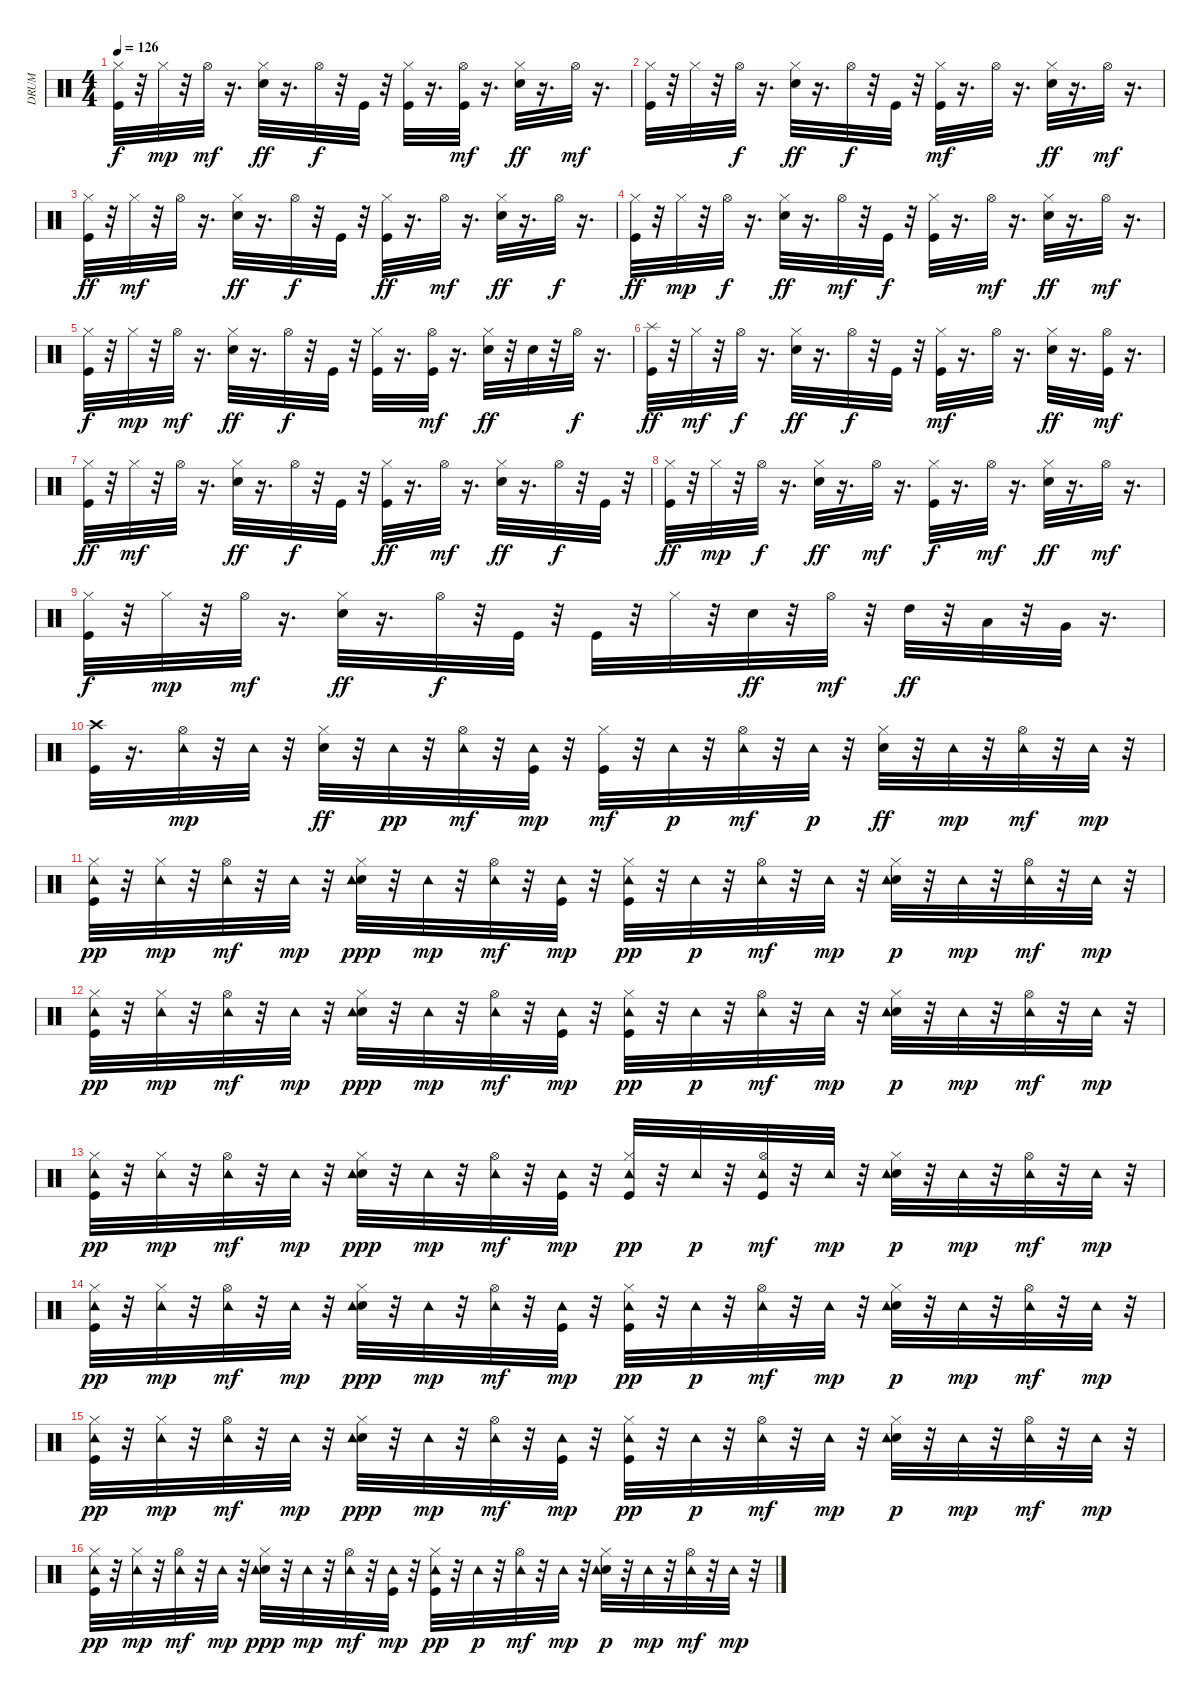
\track ("DRUM" "DRUM") {instrument percussion}
\staff {score}
\articulation defaults
\ts (4 4)
\tempo 126
\clef neutral
\ks c
("Kick (hit)" "Hi-Hat (closed)").32{dy f} r.32 "Hi-Hat (closed)".32{dy mp} r.32 "Hi-Hat (open)".32{dy mf} r.16{d} ("Electric Snare (hit)" "Hi-Hat (closed)").32{dy ff} r.16{d} "Hi-Hat (open)".32{dy f} r.32 "Kick (hit)".32 r.32 ("Kick (hit)" "Hi-Hat (closed)").32 r.16{d} ("Kick (hit)" "Hi-Hat (open)").32{dy mf} r.16{d} ("Electric Snare (hit)" "Hi-Hat (closed)").32{dy ff} r.16{d} "Hi-Hat (open)".32{dy mf} r.16{d} |
("Kick (hit)" "Hi-Hat (closed)").32 r.32 "Hi-Hat (closed)".32 r.32 "Hi-Hat (open)".32{dy f} r.16{d} ("Electric Snare (hit)" "Hi-Hat (closed)").32{dy ff} r.16{d} "Hi-Hat (open)".32{dy f} r.32 "Kick (hit)".32 r.32 ("Kick (hit)" "Hi-Hat (closed)").32{dy mf} r.16{d} "Hi-Hat (open)".32 r.16{d} ("Electric Snare (hit)" "Hi-Hat (closed)").32{dy ff} r.16{d} "Hi-Hat (open)".32{dy mf} r.16{d} |
("Kick (hit)" "Hi-Hat (closed)").32{dy ff} r.32 "Hi-Hat (closed)".32{dy mf} r.32 "Hi-Hat (open)".32 r.16{d} ("Electric Snare (hit)" "Hi-Hat (closed)").32{dy ff} r.16{d} "Hi-Hat (open)".32{dy f} r.32 "Kick (hit)".32 r.32 ("Kick (hit)" "Hi-Hat (closed)").32{dy ff} r.16{d} "Hi-Hat (open)".32{dy mf} r.16{d} ("Electric Snare (hit)" "Hi-Hat (closed)").32{dy ff} r.16{d} "Hi-Hat (open)".32{dy f} r.16{d} |
("Kick (hit)" "Hi-Hat (closed)").32{dy ff} r.32 "Hi-Hat (closed)".32{dy mp} r.32 "Hi-Hat (open)".32{dy f} r.16{d} ("Electric Snare (hit)" "Hi-Hat (closed)").32{dy ff} r.16{d} "Hi-Hat (open)".32{dy mf} r.32 "Kick (hit)".32{dy f} r.32 ("Kick (hit)" "Hi-Hat (closed)").32 r.16{d} "Hi-Hat (open)".32{dy mf} r.16{d} ("Electric Snare (hit)" "Hi-Hat (closed)").32{dy ff} r.16{d} "Hi-Hat (open)".32{dy mf} r.16{d} |
("Kick (hit)" "Hi-Hat (closed)").32{dy f} r.32 "Hi-Hat (closed)".32{dy mp} r.32 "Hi-Hat (open)".32{dy mf} r.16{d} ("Electric Snare (hit)" "Hi-Hat (closed)").32{dy ff} r.16{d} "Hi-Hat (open)".32{dy f} r.32 "Kick (hit)".32 r.32 ("Kick (hit)" "Hi-Hat (closed)").32 r.16{d} ("Kick (hit)" "Hi-Hat (open)").32{dy mf} r.16{d} ("Electric Snare (hit)" "Hi-Hat (closed)").32{dy ff} r.32 "Electric Snare (hit)".32 r.32 "Hi-Hat (open)".32{dy f} r.16{d} |
("Kick (hit)" "Splash (hit)").32{dy ff} r.32 "Hi-Hat (closed)".32{dy mf} r.32 "Hi-Hat (open)".32{dy f} r.16{d} ("Electric Snare (hit)" "Hi-Hat (closed)").32{dy ff} r.16{d} "Hi-Hat (open)".32{dy f} r.32 "Kick (hit)".32 r.32 ("Kick (hit)" "Hi-Hat (closed)").32{dy mf} r.16{d} "Hi-Hat (open)".32 r.16{d} ("Electric Snare (hit)" "Hi-Hat (closed)").32{dy ff} r.16{d} ("Kick (hit)" "Hi-Hat (open)").32{dy mf} r.16{d} |
("Kick (hit)" "Hi-Hat (closed)").32{dy ff} r.32 "Hi-Hat (closed)".32{dy mf} r.32 "Hi-Hat (open)".32 r.16{d} ("Electric Snare (hit)" "Hi-Hat (closed)").32{dy ff} r.16{d} "Hi-Hat (open)".32{dy f} r.32 "Kick (hit)".32 r.32 ("Kick (hit)" "Hi-Hat (closed)").32{dy ff} r.16{d} "Hi-Hat (open)".32{dy mf} r.16{d} ("Electric Snare (hit)" "Hi-Hat (closed)").32{dy ff} r.16{d} "Hi-Hat (open)".32{dy f} r.32 "Kick (hit)".32 r.32 |
("Kick (hit)" "Hi-Hat (closed)").32{dy ff} r.32 "Hi-Hat (closed)".32{dy mp} r.32 "Hi-Hat (open)".32{dy f} r.16{d} ("Electric Snare (hit)" "Hi-Hat (closed)").32{dy ff} r.16{d} "Hi-Hat (open)".32{dy mf} r.16{d} ("Kick (hit)" "Hi-Hat (closed)").32{dy f} r.16{d} "Hi-Hat (open)".32{dy mf} r.16{d} ("Electric Snare (hit)" "Hi-Hat (closed)").32{dy ff} r.16{d} "Hi-Hat (open)".32{dy mf} r.16{d} |
("Kick (hit)" "Hi-Hat (closed)").32{dy f} r.32 "Hi-Hat (closed)".32{dy mp} r.32 "Hi-Hat (open)".32{dy mf} r.16{d} ("Electric Snare (hit)" "Hi-Hat (closed)").32{dy ff} r.16{d} "Hi-Hat (open)".32{dy f} r.32 "Kick (hit)".32 r.32 "Kick (hit)".32 r.32 "Hi-Hat (closed)".32 r.32 "Electric Snare (hit)".32{dy ff} r.32 "Hi-Hat (open)".32{dy mf} r.32 "High Tom (hit)".32{dy ff} r.32 "Low Tom (hit)".32 r.32 "Very Low Tom (hit)".32 r.16{d} |
("Kick (hit)" "Crash high (hit)").32 r.16{d} ("Hi-Hat (open)" "Tambourine (hit)").32{dy mp} r.32 "Tambourine (hit)".32 r.32 ("Electric Snare (hit)" "Hi-Hat (closed)").32{dy ff} r.32 "Tambourine (hit)".32{dy pp} r.32 ("Hi-Hat (open)" "Tambourine (hit)").32{dy mf} r.32 ("Kick (hit)" "Tambourine (hit)").32{dy mp} r.32 ("Kick (hit)" "Hi-Hat (closed)").32{dy mf} r.32 "Tambourine (hit)".32{dy p} r.32 ("Hi-Hat (open)" "Tambourine (hit)").32{dy mf} r.32 "Tambourine (hit)".32{dy p} r.32 ("Electric Snare (hit)" "Hi-Hat (closed)").32{dy ff} r.32 "Tambourine (hit)".32{dy mp} r.32 ("Hi-Hat (open)" "Tambourine (hit)").32{dy mf} r.32 "Tambourine (hit)".32{dy mp} r.32 |
("Kick (hit)" "Hi-Hat (closed)" "Tambourine (hit)").32{dy pp} r.32 ("Hi-Hat (closed)" "Tambourine (hit)").32{dy mp} r.32 ("Hi-Hat (open)" "Tambourine (hit)").32{dy mf} r.32 "Tambourine (hit)".32{dy mp} r.32 ("Electric Snare (hit)" "Hi-Hat (closed)" "Tambourine (hit)").32{dy ppp} r.32 "Tambourine (hit)".32{dy mp} r.32 ("Hi-Hat (open)" "Tambourine (hit)").32{dy mf} r.32 ("Kick (hit)" "Tambourine (hit)").32{dy mp} r.32 ("Kick (hit)" "Hi-Hat (closed)" "Tambourine (hit)").32{dy pp} r.32 "Tambourine (hit)".32{dy p} r.32 ("Hi-Hat (open)" "Tambourine (hit)").32{dy mf} r.32 "Tambourine (hit)".32{dy mp} r.32 ("Electric Snare (hit)" "Hi-Hat (closed)" "Tambourine (hit)").32{dy p} r.32 "Tambourine (hit)".32{dy mp} r.32 ("Hi-Hat (open)" "Tambourine (hit)").32{dy mf} r.32 "Tambourine (hit)".32{dy mp} r.32 |
("Kick (hit)" "Hi-Hat (closed)" "Tambourine (hit)").32{dy pp} r.32 ("Hi-Hat (closed)" "Tambourine (hit)").32{dy mp} r.32 ("Hi-Hat (open)" "Tambourine (hit)").32{dy mf} r.32 "Tambourine (hit)".32{dy mp} r.32 ("Electric Snare (hit)" "Hi-Hat (closed)" "Tambourine (hit)").32{dy ppp} r.32 "Tambourine (hit)".32{dy mp} r.32 ("Hi-Hat (open)" "Tambourine (hit)").32{dy mf} r.32 ("Kick (hit)" "Tambourine (hit)").32{dy mp} r.32 ("Kick (hit)" "Hi-Hat (closed)" "Tambourine (hit)").32{dy pp} r.32 "Tambourine (hit)".32{dy p} r.32 ("Hi-Hat (open)" "Tambourine (hit)").32{dy mf} r.32 "Tambourine (hit)".32{dy mp} r.32 ("Electric Snare (hit)" "Hi-Hat (closed)" "Tambourine (hit)").32{dy p} r.32 "Tambourine (hit)".32{dy mp} r.32 ("Hi-Hat (open)" "Tambourine (hit)").32{dy mf} r.32 "Tambourine (hit)".32{dy mp} r.32 |
("Kick (hit)" "Hi-Hat (closed)" "Tambourine (hit)").32{dy pp} r.32 ("Hi-Hat (closed)" "Tambourine (hit)").32{dy mp} r.32 ("Hi-Hat (open)" "Tambourine (hit)").32{dy mf} r.32 "Tambourine (hit)".32{dy mp} r.32 ("Electric Snare (hit)" "Hi-Hat (closed)" "Tambourine (hit)").32{dy ppp} r.32 "Tambourine (hit)".32{dy mp} r.32 ("Hi-Hat (open)" "Tambourine (hit)").32{dy mf} r.32 ("Kick (hit)" "Tambourine (hit)").32{dy mp} r.32 ("Kick (hit)" "Hi-Hat (closed)" "Tambourine (hit)").32{dy pp} r.32 "Tambourine (hit)".32{dy p} r.32 ("Kick (hit)" "Hi-Hat (open)" "Tambourine (hit)").32{dy mf} r.32 "Tambourine (hit)".32{dy mp} r.32 ("Electric Snare (hit)" "Hi-Hat (closed)" "Tambourine (hit)").32{dy p} r.32 "Tambourine (hit)".32{dy mp} r.32 ("Hi-Hat (open)" "Tambourine (hit)").32{dy mf} r.32 "Tambourine (hit)".32{dy mp} r.32 |
("Kick (hit)" "Hi-Hat (closed)" "Tambourine (hit)").32{dy pp} r.32 ("Hi-Hat (closed)" "Tambourine (hit)").32{dy mp} r.32 ("Hi-Hat (open)" "Tambourine (hit)").32{dy mf} r.32 "Tambourine (hit)".32{dy mp} r.32 ("Electric Snare (hit)" "Hi-Hat (closed)" "Tambourine (hit)").32{dy ppp} r.32 "Tambourine (hit)".32{dy mp} r.32 ("Hi-Hat (open)" "Tambourine (hit)").32{dy mf} r.32 ("Kick (hit)" "Tambourine (hit)").32{dy mp} r.32 ("Kick (hit)" "Hi-Hat (closed)" "Tambourine (hit)").32{dy pp} r.32 "Tambourine (hit)".32{dy p} r.32 ("Hi-Hat (open)" "Tambourine (hit)").32{dy mf} r.32 "Tambourine (hit)".32{dy mp} r.32 ("Electric Snare (hit)" "Hi-Hat (closed)" "Tambourine (hit)").32{dy p} r.32 "Tambourine (hit)".32{dy mp} r.32 ("Hi-Hat (open)" "Tambourine (hit)").32{dy mf} r.32 "Tambourine (hit)".32{dy mp} r.32 |
("Kick (hit)" "Hi-Hat (closed)" "Tambourine (hit)").32{dy pp} r.32 ("Hi-Hat (closed)" "Tambourine (hit)").32{dy mp} r.32 ("Hi-Hat (open)" "Tambourine (hit)").32{dy mf} r.32 "Tambourine (hit)".32{dy mp} r.32 ("Electric Snare (hit)" "Hi-Hat (closed)" "Tambourine (hit)").32{dy ppp} r.32 "Tambourine (hit)".32{dy mp} r.32 ("Hi-Hat (open)" "Tambourine (hit)").32{dy mf} r.32 ("Kick (hit)" "Tambourine (hit)").32{dy mp} r.32 ("Kick (hit)" "Hi-Hat (closed)" "Tambourine (hit)").32{dy pp} r.32 "Tambourine (hit)".32{dy p} r.32 ("Hi-Hat (open)" "Tambourine (hit)").32{dy mf} r.32 "Tambourine (hit)".32{dy mp} r.32 ("Electric Snare (hit)" "Hi-Hat (closed)" "Tambourine (hit)").32{dy p} r.32 "Tambourine (hit)".32{dy mp} r.32 ("Hi-Hat (open)" "Tambourine (hit)").32{dy mf} r.32 "Tambourine (hit)".32{dy mp} r.32 |
("Kick (hit)" "Hi-Hat (closed)" "Tambourine (hit)").32{dy pp} r.32 ("Hi-Hat (closed)" "Tambourine (hit)").32{dy mp} r.32 ("Hi-Hat (open)" "Tambourine (hit)").32{dy mf} r.32 "Tambourine (hit)".32{dy mp} r.32 ("Electric Snare (hit)" "Hi-Hat (closed)" "Tambourine (hit)").32{dy ppp} r.32 "Tambourine (hit)".32{dy mp} r.32 ("Hi-Hat (open)" "Tambourine (hit)").32{dy mf} r.32 ("Kick (hit)" "Tambourine (hit)").32{dy mp} r.32 ("Kick (hit)" "Hi-Hat (closed)" "Tambourine (hit)").32{dy pp} r.32 "Tambourine (hit)".32{dy p} r.32 ("Hi-Hat (open)" "Tambourine (hit)").32{dy mf} r.32 "Tambourine (hit)".32{dy mp} r.32 ("Electric Snare (hit)" "Hi-Hat (closed)" "Tambourine (hit)").32{dy p} r.32 "Tambourine (hit)".32{dy mp} r.32 ("Hi-Hat (open)" "Tambourine (hit)").32{dy mf} r.32 "Tambourine (hit)".32{dy mp} r.32
